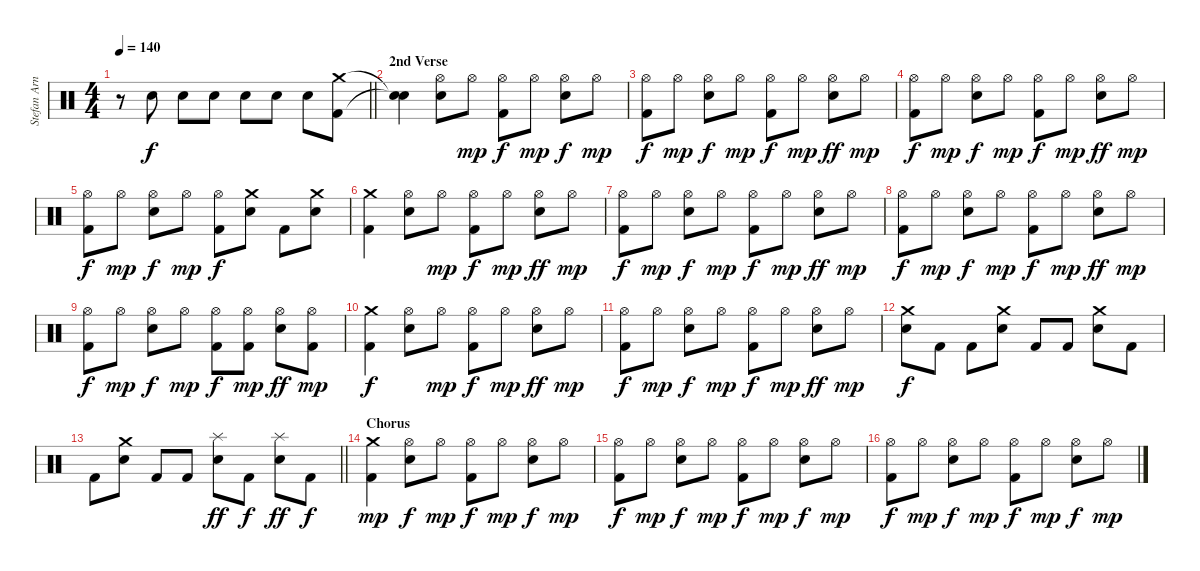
\track ("Stefan Arnold" "Stefan Arn") {instrument percussion}
\staff {score}
\articulation defaults
\ts (4 4)
\tempo 140
\clef neutral
\barLineRight lightlight
\ks c
r.8{dy f} "Electric Snare (hit)".8 "Electric Snare (hit)".8 "Electric Snare (hit)".8 "Electric Snare (hit)".8 "Electric Snare (hit)".8 "Electric Snare (hit)".8 ("Crash medium (hit)" "Kick (hit) 2").8 |
\section ("" "2nd Verse")
("Snare (hit)"{t} "Snare (hit)"{t}).4 ("Hi-Hat (open)" "Electric Snare (hit)").8 "Hi-Hat (open)".8{dy mp} ("Hi-Hat (open)" "Kick (hit) 2").8{dy f} "Hi-Hat (open)".8{dy mp} ("Hi-Hat (open)" "Electric Snare (hit)").8{dy f} "Hi-Hat (open)".8{dy mp} |
("Hi-Hat (open)" "Kick (hit) 2").8{dy f} "Hi-Hat (open)".8{dy mp} ("Hi-Hat (open)" "Electric Snare (hit)").8{dy f} "Hi-Hat (open)".8{dy mp} ("Hi-Hat (open)" "Kick (hit) 2").8{dy f} "Hi-Hat (open)".8{dy mp} ("Hi-Hat (open)" "Electric Snare (hit)").8{dy ff} "Hi-Hat (open)".8{dy mp} |
("Hi-Hat (open)" "Kick (hit) 2").8{dy f} "Hi-Hat (open)".8{dy mp} ("Hi-Hat (open)" "Electric Snare (hit)").8{dy f} "Hi-Hat (open)".8{dy mp} ("Hi-Hat (open)" "Kick (hit) 2").8{dy f} "Hi-Hat (open)".8{dy mp} ("Hi-Hat (open)" "Electric Snare (hit)").8{dy ff} "Hi-Hat (open)".8{dy mp} |
("Hi-Hat (open)" "Kick (hit) 2").8{dy f} "Hi-Hat (open)".8{dy mp} ("Hi-Hat (open)" "Electric Snare (hit)").8{dy f} "Hi-Hat (open)".8{dy mp} ("Hi-Hat (open)" "Kick (hit) 2").8{dy f} ("Crash medium (hit)" "Electric Snare (hit)").8 "Kick (hit) 2".8 ("Crash medium (hit)" "Electric Snare (hit)").8 |
("Crash medium (hit)" "Kick (hit) 2").4 ("Hi-Hat (open)" "Electric Snare (hit)").8 "Hi-Hat (open)".8{dy mp} ("Hi-Hat (open)" "Kick (hit) 2").8{dy f} "Hi-Hat (open)".8{dy mp} ("Hi-Hat (open)" "Electric Snare (hit)").8{dy ff} "Hi-Hat (open)".8{dy mp} |
("Hi-Hat (open)" "Kick (hit) 2").8{dy f} "Hi-Hat (open)".8{dy mp} ("Hi-Hat (open)" "Electric Snare (hit)").8{dy f} "Hi-Hat (open)".8{dy mp} ("Hi-Hat (open)" "Kick (hit) 2").8{dy f} "Hi-Hat (open)".8{dy mp} ("Hi-Hat (open)" "Electric Snare (hit)").8{dy ff} "Hi-Hat (open)".8{dy mp} |
("Hi-Hat (open)" "Kick (hit) 2").8{dy f} "Hi-Hat (open)".8{dy mp} ("Hi-Hat (open)" "Electric Snare (hit)").8{dy f} "Hi-Hat (open)".8{dy mp} ("Hi-Hat (open)" "Kick (hit) 2").8{dy f} "Hi-Hat (open)".8{dy mp} ("Hi-Hat (open)" "Electric Snare (hit)").8{dy ff} "Hi-Hat (open)".8{dy mp} |
("Hi-Hat (open)" "Kick (hit) 2").8{dy f} "Hi-Hat (open)".8{dy mp} ("Hi-Hat (open)" "Electric Snare (hit)").8{dy f} "Hi-Hat (open)".8{dy mp} ("Hi-Hat (open)" "Kick (hit) 2").8{dy f} ("Hi-Hat (open)" "Kick (hit) 2").8{dy mp} ("Hi-Hat (open)" "Electric Snare (hit)").8{dy ff} ("Hi-Hat (open)" "Kick (hit) 2").8{dy mp} |
("Crash medium (hit)" "Kick (hit) 2").4{dy f} ("Hi-Hat (open)" "Electric Snare (hit)").8 "Hi-Hat (open)".8{dy mp} ("Hi-Hat (open)" "Kick (hit) 2").8{dy f} "Hi-Hat (open)".8{dy mp} ("Hi-Hat (open)" "Electric Snare (hit)").8{dy ff} "Hi-Hat (open)".8{dy mp} |
("Hi-Hat (open)" "Kick (hit) 2").8{dy f} "Hi-Hat (open)".8{dy mp} ("Hi-Hat (open)" "Electric Snare (hit)").8{dy f} "Hi-Hat (open)".8{dy mp} ("Hi-Hat (open)" "Kick (hit) 2").8{dy f} "Hi-Hat (open)".8{dy mp} ("Hi-Hat (open)" "Electric Snare (hit)").8{dy ff} "Hi-Hat (open)".8{dy mp} |
("Crash medium (hit)" "Electric Snare (hit)").8{dy f} "Kick (hit) 2".8 "Kick (hit) 2".8 ("Crash medium (hit)" "Electric Snare (hit)").8 "Kick (hit) 2".8 "Kick (hit) 2".8 ("Crash medium (hit)" "Electric Snare (hit)").8 "Kick (hit) 2".8 |
\barLineRight lightlight "Kick (hit) 2".8
("Crash medium (hit)" "Electric Snare (hit)").8 "Kick (hit) 2".8 "Kick (hit) 2".8 ("Splash (hit)" "Electric Snare (hit)").8{dy ff} "Kick (hit) 2".8{dy f} ("Splash (hit)" "Electric Snare (hit)").8{dy ff} "Kick (hit) 2".8{dy f} |
\section ("" "Chorus")
("Crash medium (hit)" "Kick (hit) 2").4{dy mp} ("Hi-Hat (open)" "Electric Snare (hit)").8{dy f} "Hi-Hat (open)".8{dy mp} ("Hi-Hat (open)" "Kick (hit) 2").8{dy f} "Hi-Hat (open)".8{dy mp} ("Hi-Hat (open)" "Electric Snare (hit)").8{dy f} "Hi-Hat (open)".8{dy mp} |
("Hi-Hat (open)" "Kick (hit) 2").8{dy f} "Hi-Hat (open)".8{dy mp} ("Hi-Hat (open)" "Electric Snare (hit)").8{dy f} "Hi-Hat (open)".8{dy mp} ("Hi-Hat (open)" "Kick (hit) 2").8{dy f} "Hi-Hat (open)".8{dy mp} ("Hi-Hat (open)" "Electric Snare (hit)").8{dy f} "Hi-Hat (open)".8{dy mp} |
("Hi-Hat (open)" "Kick (hit) 2").8{dy f} "Hi-Hat (open)".8{dy mp} ("Hi-Hat (open)" "Electric Snare (hit)").8{dy f} "Hi-Hat (open)".8{dy mp} ("Hi-Hat (open)" "Kick (hit) 2").8{dy f} "Hi-Hat (open)".8{dy mp} ("Hi-Hat (open)" "Electric Snare (hit)").8{dy f} "Hi-Hat (open)".8{dy mp}
